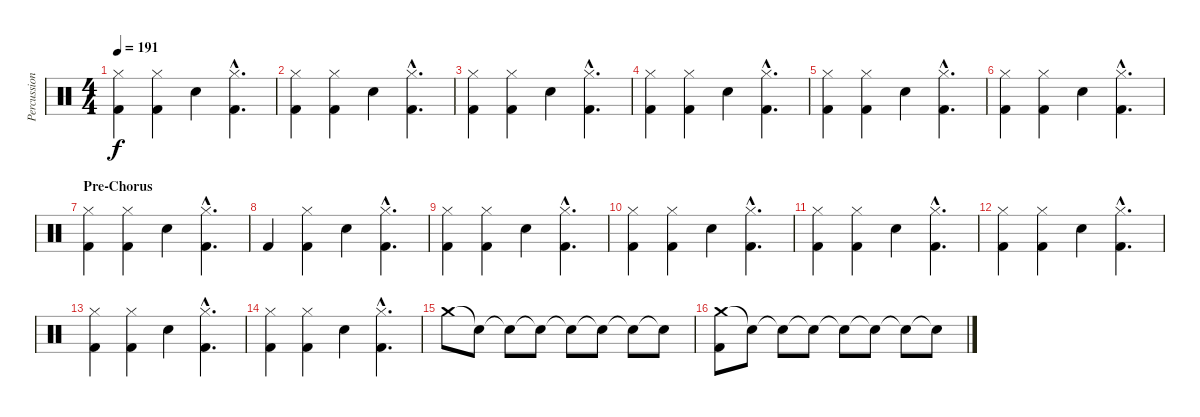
\track ("Percussion" "Percussion") {instrument percussion}
\staff {score}
\articulation defaults
\ts (4 4)
\tempo 191
\clef neutral
\ks c
("Hi-Hat (closed)" "Kick (hit) 2").4{dy f} ("Hi-Hat (closed)" "Kick (hit) 2").4 "Electric Snare (hit)".4 ("Hi-Hat (closed)"{hac} "Kick (hit) 2"{hac}).4{d} |
("Hi-Hat (closed)" "Kick (hit) 2").4 ("Hi-Hat (closed)" "Kick (hit) 2").4 "Electric Snare (hit)".4 ("Hi-Hat (closed)"{hac} "Kick (hit) 2"{hac}).4{d} |
("Hi-Hat (closed)" "Kick (hit) 2").4 ("Hi-Hat (closed)" "Kick (hit) 2").4 "Electric Snare (hit)".4 ("Hi-Hat (closed)"{hac} "Kick (hit) 2"{hac}).4{d} |
("Hi-Hat (closed)" "Kick (hit) 2").4 ("Hi-Hat (closed)" "Kick (hit) 2").4 "Electric Snare (hit)".4 ("Hi-Hat (closed)"{hac} "Kick (hit) 2"{hac}).4{d} |
("Hi-Hat (closed)" "Kick (hit) 2").4 ("Hi-Hat (closed)" "Kick (hit) 2").4 "Electric Snare (hit)".4 ("Hi-Hat (closed)"{hac} "Kick (hit) 2"{hac}).4{d} |
("Hi-Hat (closed)" "Kick (hit) 2").4 ("Hi-Hat (closed)" "Kick (hit) 2").4 "Electric Snare (hit)".4 ("Hi-Hat (closed)"{hac} "Kick (hit) 2"{hac}).4{d} |
\section ("" "Pre-Chorus")
("Hi-Hat (closed)" "Kick (hit) 2").4 ("Hi-Hat (closed)" "Kick (hit) 2").4 "Electric Snare (hit)".4 ("Hi-Hat (closed)"{hac} "Kick (hit) 2"{hac}).4{d} |
"Kick (hit) 2".4 ("Hi-Hat (closed)" "Kick (hit) 2").4 "Electric Snare (hit)".4 ("Hi-Hat (closed)"{hac} "Kick (hit) 2"{hac}).4{d} |
("Hi-Hat (closed)" "Kick (hit) 2").4 ("Hi-Hat (closed)" "Kick (hit) 2").4 "Electric Snare (hit)".4 ("Hi-Hat (closed)"{hac} "Kick (hit) 2"{hac}).4{d} |
("Hi-Hat (closed)" "Kick (hit) 2").4 ("Hi-Hat (closed)" "Kick (hit) 2").4 "Electric Snare (hit)".4 ("Hi-Hat (closed)"{hac} "Kick (hit) 2"{hac}).4{d} |
("Hi-Hat (closed)" "Kick (hit) 2").4 ("Hi-Hat (closed)" "Kick (hit) 2").4 "Electric Snare (hit)".4 ("Hi-Hat (closed)"{hac} "Kick (hit) 2"{hac}).4{d} |
("Hi-Hat (closed)" "Kick (hit) 2").4 ("Hi-Hat (closed)" "Kick (hit) 2").4 "Electric Snare (hit)".4 ("Hi-Hat (closed)"{hac} "Kick (hit) 2"{hac}).4{d} |
("Hi-Hat (closed)" "Kick (hit) 2").4 ("Hi-Hat (closed)" "Kick (hit) 2").4 "Electric Snare (hit)".4 ("Hi-Hat (closed)"{hac} "Kick (hit) 2"{hac}).4{d} |
("Hi-Hat (closed)" "Kick (hit) 2").4 ("Hi-Hat (closed)" "Kick (hit) 2").4 "Electric Snare (hit)".4 ("Hi-Hat (closed)"{hac} "Kick (hit) 2"{hac}).4{d} |
"Crash medium (hit)".8 "Snare (hit)"{t}.8 "Snare (hit)"{t}.8 "Snare (hit)"{t}.8 "Snare (hit)"{t}.8 "Snare (hit)"{t}.8 "Snare (hit)"{t}.8 "Snare (hit)"{t}.8 |
("Crash medium (hit)" "Kick (hit) 2").8 "Snare (hit)"{t}.8 "Snare (hit)"{t}.8 "Snare (hit)"{t}.8 "Snare (hit)"{t}.8 "Snare (hit)"{t}.8 "Snare (hit)"{t}.8 "Snare (hit)"{t}.8
